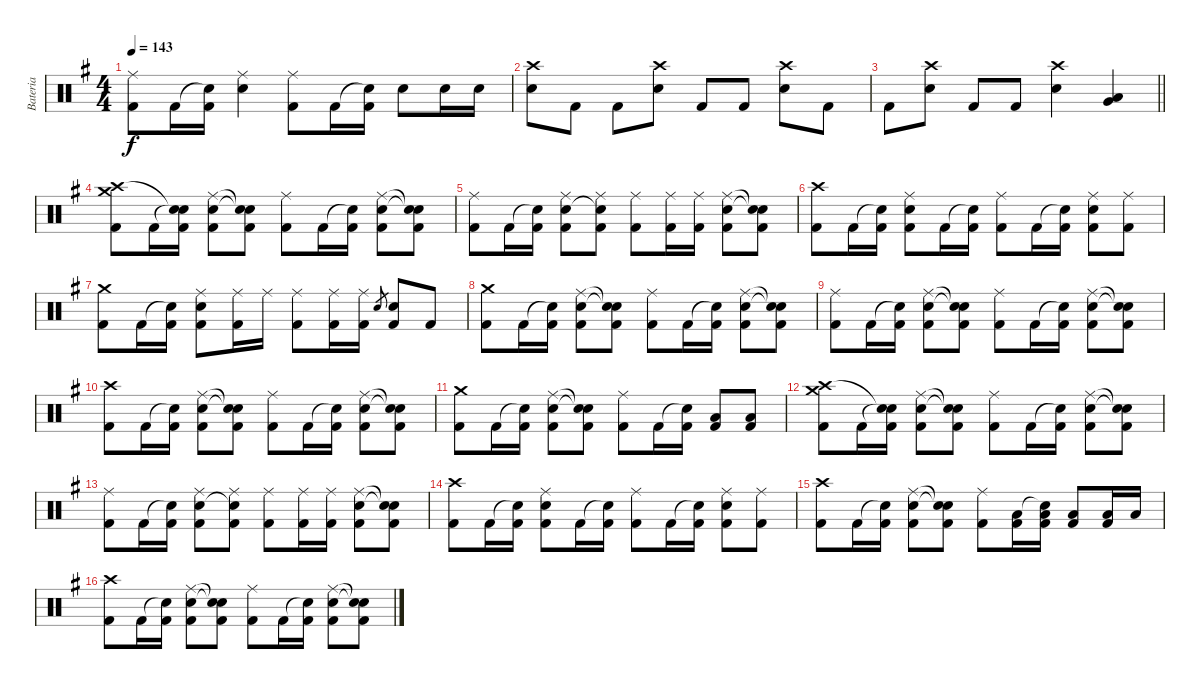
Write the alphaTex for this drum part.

\track ("Bateria" "Bateria") {instrument percussion}
\staff {score}
\articulation defaults
\ts (4 4)
\tempo 143
\clef neutral
\ks g
("Ride (middle)" "Kick (hit) 2").8{dy f} "Kick (hit) 2".16 ("Snare (hit)"{t} "Kick (hit) 2").16 ("Ride (middle)" "Electric Snare (hit)").4 ("Ride (middle)" "Kick (hit) 2").8 "Kick (hit) 2".16 ("Snare (hit)"{t} "Kick (hit) 2").16 "Electric Snare (hit)".8 "Electric Snare (hit)".16 "Electric Snare (hit)".16 |
("Crash high (hit)" "Electric Snare (hit)").8 "Kick (hit) 2".8 "Kick (hit) 2".8 ("Crash high (hit)" "Electric Snare (hit)").8 "Kick (hit) 2".8 "Kick (hit) 2".8 ("Crash high (hit)" "Electric Snare (hit)").8 "Kick (hit) 2".8 |
\barLineRight lightlight "Kick (hit) 2".8
("Crash high (hit)" "Electric Snare (hit)").8 "Kick (hit) 2".8 "Kick (hit) 2".8 ("Crash high (hit)" "Electric Snare (hit)").4 ("Low Tom (hit)" "Very Low Tom (hit)").4 |
("Crash medium (hit)" "Crash high (hit)" "Kick (hit) 2").8 "Kick (hit) 2".16 ("Snare (hit)"{t} "Snare (hit)"{t} "Kick (hit) 2").16 ("Ride (middle)" "Electric Snare (hit)" "Kick (hit) 2").8 ("Snare (hit)"{t} "Snare (hit)"{t} "Kick (hit) 2").8 ("Ride (middle)" "Kick (hit) 2").8 "Kick (hit) 2".16 ("Snare (hit)"{t} "Kick (hit) 2").16 ("Ride (middle)" "Electric Snare (hit)" "Kick (hit) 2").8 ("Snare (hit)"{t} "Snare (hit)"{t} "Kick (hit) 2").8 |
("Ride (middle)" "Kick (hit) 2").8 "Kick (hit) 2".16 ("Snare (hit)"{t} "Kick (hit) 2").16 ("Ride (middle)" "Electric Snare (hit)" "Kick (hit) 2").8 ("Ride (middle)" "Snare (hit)"{t} "Kick (hit) 2").8 ("Ride (middle)" "Kick (hit) 2").8 ("Ride (middle)" "Kick (hit) 2").16 ("Ride (middle)" "Kick (hit) 2").16 ("Ride (middle)" "Electric Snare (hit)" "Kick (hit) 2").8 ("Snare (hit)"{t} "Snare (hit)"{t} "Kick (hit) 2").8 |
("Crash high (hit)" "Kick (hit) 2").8 "Kick (hit) 2".16 ("Snare (hit)"{t} "Kick (hit) 2").16 ("Ride (middle)" "Electric Snare (hit)" "Kick (hit) 2").8 "Kick (hit) 2".16 ("Snare (hit)"{t} "Kick (hit) 2").16 ("Ride (middle)" "Kick (hit) 2").8 "Kick (hit) 2".16 ("Snare (hit)"{t} "Kick (hit) 2").16 ("Ride (middle)" "Electric Snare (hit)" "Kick (hit) 2").8 ("Ride (middle)" "Kick (hit) 2").8 |
("Crash medium (hit)" "Kick (hit) 2").8 "Kick (hit) 2".16 ("Snare (hit)"{t} "Kick (hit) 2").16 ("Ride (middle)" "Electric Snare (hit)" "Kick (hit) 2").8 ("Ride (middle)" "Kick (hit) 2").16 "Ride (middle)".16 ("Ride (middle)" "Kick (hit) 2").8 ("Ride (middle)" "Kick (hit) 2").16 ("Ride (middle)" "Kick (hit) 2").16 "Electric Snare (hit)".8{gr} ("Electric Snare (hit)" "Kick (hit) 2").8 "Kick (hit) 2".8 |
("Crash medium (hit)" "Kick (hit) 2").8 "Kick (hit) 2".16 ("Snare (hit)"{t} "Kick (hit) 2").16 ("Ride (middle)" "Electric Snare (hit)" "Kick (hit) 2").8 ("Snare (hit)"{t} "Snare (hit)"{t} "Kick (hit) 2").8 ("Ride (middle)" "Kick (hit) 2").8 "Kick (hit) 2".16 ("Snare (hit)"{t} "Kick (hit) 2").16 ("Ride (middle)" "Electric Snare (hit)" "Kick (hit) 2").8 ("Snare (hit)"{t} "Snare (hit)"{t} "Kick (hit) 2").8 |
("Ride (middle)" "Kick (hit) 2").8 "Kick (hit) 2".16 ("Snare (hit)"{t} "Kick (hit) 2").16 ("Ride (middle)" "Electric Snare (hit)" "Kick (hit) 2").8 ("Snare (hit)"{t} "Snare (hit)"{t} "Kick (hit) 2").8 ("Ride (middle)" "Kick (hit) 2").8 "Kick (hit) 2".16 ("Snare (hit)"{t} "Kick (hit) 2").16 ("Ride (middle)" "Electric Snare (hit)" "Kick (hit) 2").8 ("Snare (hit)"{t} "Snare (hit)"{t} "Kick (hit) 2").8 |
("Crash high (hit)" "Kick (hit) 2").8 "Kick (hit) 2".16 ("Snare (hit)"{t} "Kick (hit) 2").16 ("Ride (middle)" "Electric Snare (hit)" "Kick (hit) 2").8 ("Snare (hit)"{t} "Snare (hit)"{t} "Kick (hit) 2").8 ("Ride (middle)" "Kick (hit) 2").8 "Kick (hit) 2".16 ("Snare (hit)"{t} "Kick (hit) 2").16 ("Ride (middle)" "Electric Snare (hit)" "Kick (hit) 2").8 ("Snare (hit)"{t} "Snare (hit)"{t} "Kick (hit) 2").8 |
("Crash medium (hit)" "Kick (hit) 2").8 "Kick (hit) 2".16 ("Snare (hit)"{t} "Kick (hit) 2").16 ("Ride (middle)" "Electric Snare (hit)" "Kick (hit) 2").8 ("Snare (hit)"{t} "Snare (hit)"{t} "Kick (hit) 2").8 ("Ride (middle)" "Kick (hit) 2").8 "Kick (hit) 2".16 ("Snare (hit)"{t} "Kick (hit) 2").16 ("Low Tom (hit)" "Kick (hit) 2").8 ("Low Tom (hit)" "Kick (hit) 2").8 |
("Crash medium (hit)" "Crash high (hit)" "Kick (hit) 2").8 "Kick (hit) 2".16 ("Snare (hit)"{t} "Snare (hit)"{t} "Kick (hit) 2").16 ("Ride (middle)" "Electric Snare (hit)" "Kick (hit) 2").8 ("Snare (hit)"{t} "Snare (hit)"{t} "Kick (hit) 2").8 ("Ride (middle)" "Kick (hit) 2").8 "Kick (hit) 2".16 ("Snare (hit)"{t} "Kick (hit) 2").16 ("Ride (middle)" "Electric Snare (hit)" "Kick (hit) 2").8 ("Snare (hit)"{t} "Snare (hit)"{t} "Kick (hit) 2").8 |
("Ride (middle)" "Kick (hit) 2").8 "Kick (hit) 2".16 ("Snare (hit)"{t} "Kick (hit) 2").16 ("Ride (middle)" "Electric Snare (hit)" "Kick (hit) 2").8 ("Ride (middle)" "Snare (hit)"{t} "Kick (hit) 2").8 ("Ride (middle)" "Kick (hit) 2").8 ("Ride (middle)" "Kick (hit) 2").16 ("Ride (middle)" "Kick (hit) 2").16 ("Ride (middle)" "Electric Snare (hit)" "Kick (hit) 2").8 ("Snare (hit)"{t} "Snare (hit)"{t} "Kick (hit) 2").8 |
("Crash high (hit)" "Kick (hit) 2").8 "Kick (hit) 2".16 ("Snare (hit)"{t} "Kick (hit) 2").16 ("Ride (middle)" "Electric Snare (hit)" "Kick (hit) 2").8 "Kick (hit) 2".16 ("Snare (hit)"{t} "Kick (hit) 2").16 ("Ride (middle)" "Kick (hit) 2").8 "Kick (hit) 2".16 ("Snare (hit)"{t} "Kick (hit) 2").16 ("Ride (middle)" "Electric Snare (hit)" "Kick (hit) 2").8 ("Ride (middle)" "Kick (hit) 2").8 |
("Crash high (hit)" "Kick (hit) 2").8 "Kick (hit) 2".16 ("Snare (hit)"{t} "Kick (hit) 2").16 ("Ride (middle)" "Electric Snare (hit)" "Kick (hit) 2").8 ("Snare (hit)"{t} "Snare (hit)"{t} "Kick (hit) 2").8 ("Ride (middle)" "Kick (hit) 2").8 ("Low Tom (hit)" "Kick (hit) 2").16 ("Snare (hit)"{t} "Low Tom (hit)" "Kick (hit) 2").16 ("Low Tom (hit)" "Kick (hit) 2").8 ("Low Tom (hit)" "Kick (hit) 2").16 "Low Tom (hit)".16 |
("Crash high (hit)" "Kick (hit) 2").8 "Kick (hit) 2".16 ("Snare (hit)"{t} "Kick (hit) 2").16 ("Ride (middle)" "Electric Snare (hit)" "Kick (hit) 2").8 ("Snare (hit)"{t} "Snare (hit)"{t} "Kick (hit) 2").8 ("Ride (middle)" "Kick (hit) 2").8 "Kick (hit) 2".16 ("Snare (hit)"{t} "Kick (hit) 2").16 ("Ride (middle)" "Electric Snare (hit)" "Kick (hit) 2").8 ("Snare (hit)"{t} "Snare (hit)"{t} "Kick (hit) 2").8
